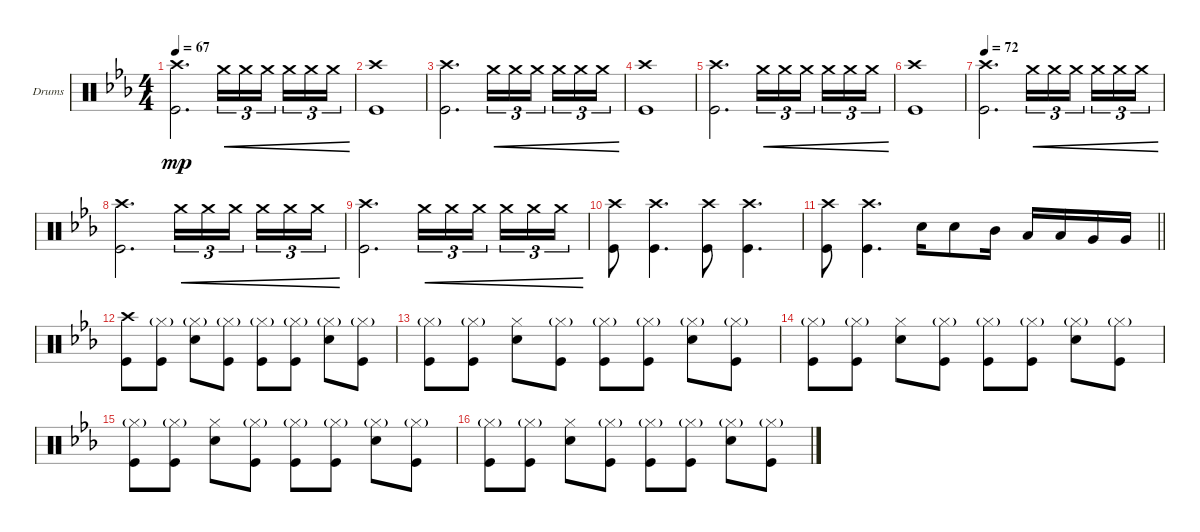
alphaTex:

\defaultSystemsLayout 4
\bracketExtendMode groupsimilarinstruments
\firstSystemTrackNameOrientation horizontal
\otherSystemsTrackNameOrientation horizontal
\track ("Drumkit" "Drums") {instrument percussion}
\staff {score}
\articulation defaults
\ts (4 4)
\tempo 67
\clef neutral
\ks eb
("Crash high (hit)" "Kick (hit)").2{d dy mp} "Crash medium (hit)".16{tu (3 2) cre} "Crash medium (hit)".16{tu (3 2) cre} "Crash medium (hit)".16{tu (3 2) cre} "Crash medium (hit)".16{tu (3 2) cre} "Crash medium (hit)".16{tu (3 2) cre} "Crash medium (hit)".16{tu (3 2) cre} |
("Crash high (hit)" "Kick (hit)").1 |
("Crash high (hit)" "Kick (hit)").2{d} "Crash medium (hit)".16{tu (3 2) cre} "Crash medium (hit)".16{tu (3 2) cre} "Crash medium (hit)".16{tu (3 2) cre} "Crash medium (hit)".16{tu (3 2) cre} "Crash medium (hit)".16{tu (3 2) cre} "Crash medium (hit)".16{tu (3 2) cre} |
("Crash high (hit)" "Kick (hit)").1 |
("Crash high (hit)" "Kick (hit)").2{d} "Crash medium (hit)".16{tu (3 2) cre} "Crash medium (hit)".16{tu (3 2) cre} "Crash medium (hit)".16{tu (3 2) cre} "Crash medium (hit)".16{tu (3 2) cre} "Crash medium (hit)".16{tu (3 2) cre} "Crash medium (hit)".16{tu (3 2) cre} |
("Crash high (hit)" "Kick (hit)").1 |
\tempo 72
("Crash high (hit)" "Kick (hit)").2{d} "Crash medium (hit)".16{tu (3 2) cre} "Crash medium (hit)".16{tu (3 2) cre} "Crash medium (hit)".16{tu (3 2) cre} "Crash medium (hit)".16{tu (3 2) cre} "Crash medium (hit)".16{tu (3 2) cre} "Crash medium (hit)".16{tu (3 2) cre} |
("Crash high (hit)" "Kick (hit)").2{d} "Crash medium (hit)".16{tu (3 2) cre} "Crash medium (hit)".16{tu (3 2) cre} "Crash medium (hit)".16{tu (3 2) cre} "Crash medium (hit)".16{tu (3 2) cre} "Crash medium (hit)".16{tu (3 2) cre} "Crash medium (hit)".16{tu (3 2) cre} |
("Crash high (hit)" "Kick (hit)").2{d} "Crash medium (hit)".16{tu (3 2) cre} "Crash medium (hit)".16{tu (3 2) cre} "Crash medium (hit)".16{tu (3 2) cre} "Crash medium (hit)".16{tu (3 2) cre} "Crash medium (hit)".16{tu (3 2) cre} "Crash medium (hit)".16{tu (3 2) cre} |
("Crash high (hit)" "Kick (hit)").8 ("Crash high (hit)" "Kick (hit)").4{d} ("Crash high (hit)" "Kick (hit)").8 ("Crash high (hit)" "Kick (hit)").4{d} |
\barLineRight lightlight
("Crash high (hit)" "Kick (hit)").8 ("Crash high (hit)" "Kick (hit)").4{d} "Snare (hit) 2".16 "Snare (hit) 2".8 "Mid Tom (hit)".16 "Low Tom (hit)".16 "Low Tom (hit)".16 "Very Low Tom (hit)".16 "Very Low Tom (hit)".16 |
("Kick (hit)" "Crash high (hit)").8 ("Kick (hit)" "Hi-Hat (closed)"{g}).8 ("Snare (hit) 2" "Hi-Hat (closed)"{g}).8 ("Kick (hit)" "Hi-Hat (closed)"{g}).8 ("Kick (hit)" "Hi-Hat (closed)"{g}).8 ("Kick (hit)" "Hi-Hat (closed)"{g}).8 ("Snare (hit) 2" "Hi-Hat (closed)"{g}).8 ("Kick (hit)" "Hi-Hat (closed)"{g}).8 |
("Kick (hit)" "Hi-Hat (closed)"{g}).8 ("Kick (hit)" "Hi-Hat (closed)"{g}).8 ("Snare (hit) 2" "Hi-Hat (closed)").8 ("Kick (hit)" "Hi-Hat (closed)"{g}).8 ("Kick (hit)" "Hi-Hat (closed)"{g}).8 ("Kick (hit)" "Hi-Hat (closed)"{g}).8 ("Snare (hit) 2" "Hi-Hat (closed)"{g}).8 ("Kick (hit)" "Hi-Hat (closed)"{g}).8 |
("Kick (hit)" "Hi-Hat (closed)"{g}).8 ("Kick (hit)" "Hi-Hat (closed)"{g}).8 ("Snare (hit) 2" "Hi-Hat (closed)").8 ("Kick (hit)" "Hi-Hat (closed)"{g}).8 ("Kick (hit)" "Hi-Hat (closed)"{g}).8 ("Kick (hit)" "Hi-Hat (closed)"{g}).8 ("Snare (hit) 2" "Hi-Hat (closed)"{g}).8 ("Kick (hit)" "Hi-Hat (closed)"{g}).8 |
("Kick (hit)" "Hi-Hat (closed)"{g}).8 ("Kick (hit)" "Hi-Hat (closed)"{g}).8 ("Snare (hit) 2" "Hi-Hat (closed)").8 ("Kick (hit)" "Hi-Hat (closed)"{g}).8 ("Kick (hit)" "Hi-Hat (closed)"{g}).8 ("Kick (hit)" "Hi-Hat (closed)"{g}).8 ("Snare (hit) 2" "Hi-Hat (closed)"{g}).8 ("Kick (hit)" "Hi-Hat (closed)"{g}).8 |
("Kick (hit)" "Hi-Hat (closed)"{g}).8 ("Kick (hit)" "Hi-Hat (closed)"{g}).8 ("Snare (hit) 2" "Hi-Hat (closed)").8 ("Kick (hit)" "Hi-Hat (closed)"{g}).8 ("Kick (hit)" "Hi-Hat (closed)"{g}).8 ("Kick (hit)" "Hi-Hat (closed)"{g}).8 ("Snare (hit) 2" "Hi-Hat (closed)"{g}).8 ("Kick (hit)" "Hi-Hat (closed)"{g}).8
